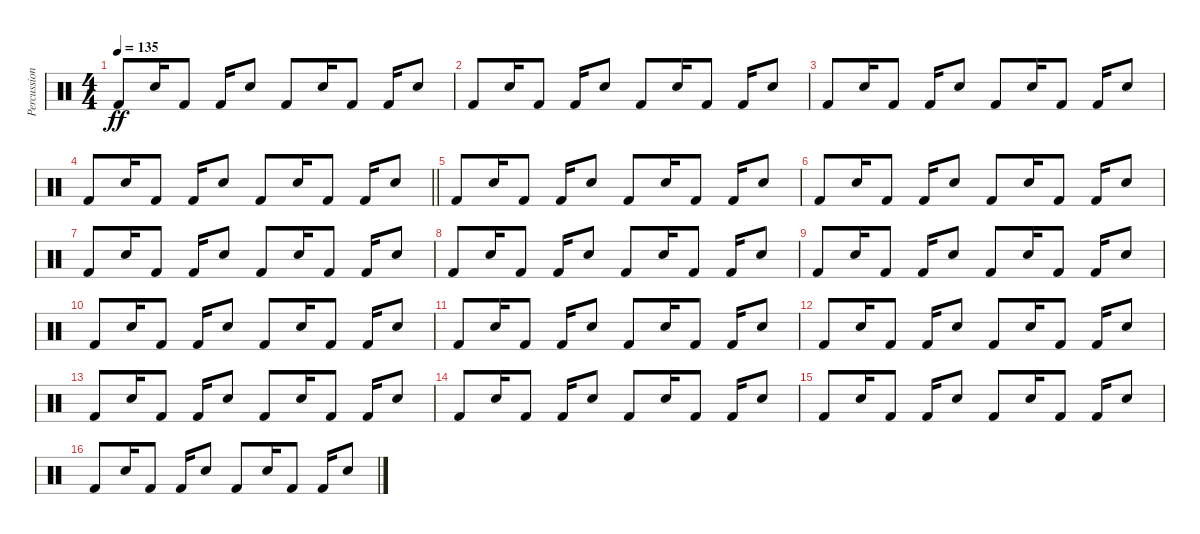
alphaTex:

\track ("Percussion" "Percussion") {instrument percussion}
\staff {score}
\articulation defaults
\ts (4 4)
\tempo 135
\clef neutral
\ks c "Kick (hit) 2".8{dy ff} "Electric Snare (hit)".16 "Kick (hit) 2".8 "Kick (hit) 2".16 "Electric Snare (hit)".8 "Kick (hit) 2".8 "Electric Snare (hit)".16 "Kick (hit) 2".8 "Kick (hit) 2".16 "Electric Snare (hit)".8
|
"Kick (hit) 2".8 "Electric Snare (hit)".16 "Kick (hit) 2".8 "Kick (hit) 2".16 "Electric Snare (hit)".8 "Kick (hit) 2".8 "Electric Snare (hit)".16 "Kick (hit) 2".8 "Kick (hit) 2".16 "Electric Snare (hit)".8 |
"Kick (hit) 2".8 "Electric Snare (hit)".16 "Kick (hit) 2".8 "Kick (hit) 2".16 "Electric Snare (hit)".8 "Kick (hit) 2".8 "Electric Snare (hit)".16 "Kick (hit) 2".8 "Kick (hit) 2".16 "Electric Snare (hit)".8 |
\barLineRight lightlight "Kick (hit) 2".8 "Electric Snare (hit)".16 "Kick (hit) 2".8 "Kick (hit) 2".16 "Electric Snare (hit)".8 "Kick (hit) 2".8 "Electric Snare (hit)".16 "Kick (hit) 2".8 "Kick (hit) 2".16 "Electric Snare (hit)".8
|
"Kick (hit) 2".8 "Electric Snare (hit)".16 "Kick (hit) 2".8 "Kick (hit) 2".16 "Electric Snare (hit)".8 "Kick (hit) 2".8 "Electric Snare (hit)".16 "Kick (hit) 2".8 "Kick (hit) 2".16 "Electric Snare (hit)".8 |
"Kick (hit) 2".8 "Electric Snare (hit)".16 "Kick (hit) 2".8 "Kick (hit) 2".16 "Electric Snare (hit)".8 "Kick (hit) 2".8 "Electric Snare (hit)".16 "Kick (hit) 2".8 "Kick (hit) 2".16 "Electric Snare (hit)".8 |
"Kick (hit) 2".8 "Electric Snare (hit)".16 "Kick (hit) 2".8 "Kick (hit) 2".16 "Electric Snare (hit)".8 "Kick (hit) 2".8 "Electric Snare (hit)".16 "Kick (hit) 2".8 "Kick (hit) 2".16 "Electric Snare (hit)".8 |
"Kick (hit) 2".8 "Electric Snare (hit)".16 "Kick (hit) 2".8 "Kick (hit) 2".16 "Electric Snare (hit)".8 "Kick (hit) 2".8 "Electric Snare (hit)".16 "Kick (hit) 2".8 "Kick (hit) 2".16 "Electric Snare (hit)".8 |
"Kick (hit) 2".8 "Electric Snare (hit)".16 "Kick (hit) 2".8 "Kick (hit) 2".16 "Electric Snare (hit)".8 "Kick (hit) 2".8 "Electric Snare (hit)".16 "Kick (hit) 2".8 "Kick (hit) 2".16 "Electric Snare (hit)".8 |
"Kick (hit) 2".8 "Electric Snare (hit)".16 "Kick (hit) 2".8 "Kick (hit) 2".16 "Electric Snare (hit)".8 "Kick (hit) 2".8 "Electric Snare (hit)".16 "Kick (hit) 2".8 "Kick (hit) 2".16 "Electric Snare (hit)".8 |
"Kick (hit) 2".8 "Electric Snare (hit)".16 "Kick (hit) 2".8 "Kick (hit) 2".16 "Electric Snare (hit)".8 "Kick (hit) 2".8 "Electric Snare (hit)".16 "Kick (hit) 2".8 "Kick (hit) 2".16 "Electric Snare (hit)".8 |
"Kick (hit) 2".8 "Electric Snare (hit)".16 "Kick (hit) 2".8 "Kick (hit) 2".16 "Electric Snare (hit)".8 "Kick (hit) 2".8 "Electric Snare (hit)".16 "Kick (hit) 2".8 "Kick (hit) 2".16 "Electric Snare (hit)".8 |
"Kick (hit) 2".8 "Electric Snare (hit)".16 "Kick (hit) 2".8 "Kick (hit) 2".16 "Electric Snare (hit)".8 "Kick (hit) 2".8 "Electric Snare (hit)".16 "Kick (hit) 2".8 "Kick (hit) 2".16 "Electric Snare (hit)".8 |
"Kick (hit) 2".8 "Electric Snare (hit)".16 "Kick (hit) 2".8 "Kick (hit) 2".16 "Electric Snare (hit)".8 "Kick (hit) 2".8 "Electric Snare (hit)".16 "Kick (hit) 2".8 "Kick (hit) 2".16 "Electric Snare (hit)".8 |
"Kick (hit) 2".8 "Electric Snare (hit)".16 "Kick (hit) 2".8 "Kick (hit) 2".16 "Electric Snare (hit)".8 "Kick (hit) 2".8 "Electric Snare (hit)".16 "Kick (hit) 2".8 "Kick (hit) 2".16 "Electric Snare (hit)".8 |
"Kick (hit) 2".8 "Electric Snare (hit)".16 "Kick (hit) 2".8 "Kick (hit) 2".16 "Electric Snare (hit)".8 "Kick (hit) 2".8 "Electric Snare (hit)".16 "Kick (hit) 2".8 "Kick (hit) 2".16 "Electric Snare (hit)".8
